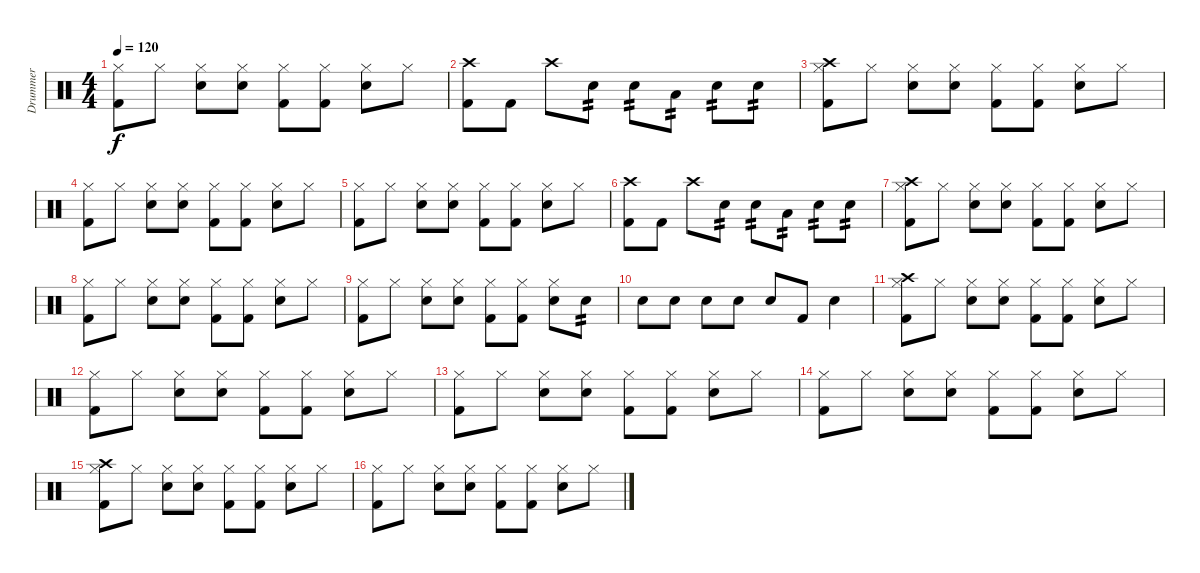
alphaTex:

\track ("Drummer" "Drummer") {instrument percussion}
\staff {score}
\articulation defaults
\ts (4 4)
\tempo 120
\clef neutral
\ks c
("Kick (hit) 2" "Hi-Hat (closed)").8{dy f} "Hi-Hat (closed)".8 ("Electric Snare (hit)" "Hi-Hat (closed)").8 ("Electric Snare (hit)" "Hi-Hat (closed)").8 ("Kick (hit) 2" "Hi-Hat (closed)").8 ("Kick (hit) 2" "Hi-Hat (closed)").8 ("Electric Snare (hit)" "Hi-Hat (closed)").8 "Hi-Hat (closed)".8 |
("Kick (hit) 2" "Crash high (hit)").8 "Kick (hit) 2".8 "Crash high (hit)".8 "Electric Snare (hit)".8{tp 2} "Electric Snare (hit)".8{tp 2} "Low Tom (hit)".8{tp 2} "Electric Snare (hit)".8{tp 2} "Electric Snare (hit)".8{tp 2} |
("Kick (hit) 2" "Crash high (hit)" "Hi-Hat (closed)").8 "Hi-Hat (closed)".8 ("Electric Snare (hit)" "Hi-Hat (closed)").8 ("Electric Snare (hit)" "Hi-Hat (closed)").8 ("Kick (hit) 2" "Hi-Hat (closed)").8 ("Kick (hit) 2" "Hi-Hat (closed)").8 ("Electric Snare (hit)" "Hi-Hat (closed)").8 "Hi-Hat (closed)".8 |
("Kick (hit) 2" "Hi-Hat (closed)").8 "Hi-Hat (closed)".8 ("Electric Snare (hit)" "Hi-Hat (closed)").8 ("Electric Snare (hit)" "Hi-Hat (closed)").8 ("Kick (hit) 2" "Hi-Hat (closed)").8 ("Kick (hit) 2" "Hi-Hat (closed)").8 ("Electric Snare (hit)" "Hi-Hat (closed)").8 "Hi-Hat (closed)".8 |
("Kick (hit) 2" "Hi-Hat (closed)").8 "Hi-Hat (closed)".8 ("Electric Snare (hit)" "Hi-Hat (closed)").8 ("Electric Snare (hit)" "Hi-Hat (closed)").8 ("Kick (hit) 2" "Hi-Hat (closed)").8 ("Kick (hit) 2" "Hi-Hat (closed)").8 ("Electric Snare (hit)" "Hi-Hat (closed)").8 "Hi-Hat (closed)".8 |
("Kick (hit) 2" "Crash high (hit)").8 "Kick (hit) 2".8 "Crash high (hit)".8 "Electric Snare (hit)".8{tp 2} "Electric Snare (hit)".8{tp 2} "Low Tom (hit)".8{tp 2} "Electric Snare (hit)".8{tp 2} "Electric Snare (hit)".8{tp 2} |
("Kick (hit) 2" "Crash high (hit)" "Hi-Hat (closed)").8 "Hi-Hat (closed)".8 ("Electric Snare (hit)" "Hi-Hat (closed)").8 ("Electric Snare (hit)" "Hi-Hat (closed)").8 ("Kick (hit) 2" "Hi-Hat (closed)").8 ("Kick (hit) 2" "Hi-Hat (closed)").8 ("Electric Snare (hit)" "Hi-Hat (closed)").8 "Hi-Hat (closed)".8 |
("Kick (hit) 2" "Hi-Hat (closed)").8 "Hi-Hat (closed)".8 ("Electric Snare (hit)" "Hi-Hat (closed)").8 ("Electric Snare (hit)" "Hi-Hat (closed)").8 ("Kick (hit) 2" "Hi-Hat (closed)").8 ("Kick (hit) 2" "Hi-Hat (closed)").8 ("Electric Snare (hit)" "Hi-Hat (closed)").8 "Hi-Hat (closed)".8 |
("Kick (hit) 2" "Hi-Hat (closed)").8 "Hi-Hat (closed)".8 ("Electric Snare (hit)" "Hi-Hat (closed)").8 ("Electric Snare (hit)" "Hi-Hat (closed)").8 ("Kick (hit) 2" "Hi-Hat (closed)").8 ("Kick (hit) 2" "Hi-Hat (closed)").8 ("Electric Snare (hit)" "Hi-Hat (closed)").8 "Electric Snare (hit)".8{tp 2} |
"Electric Snare (hit)".8 "Electric Snare (hit)".8 "Electric Snare (hit)".8 "Electric Snare (hit)".8 "Electric Snare (hit)".8 "Kick (hit) 2".8 "Electric Snare (hit)".4 |
("Kick (hit) 2" "Crash high (hit)" "Hi-Hat (closed)").8 "Hi-Hat (closed)".8 ("Electric Snare (hit)" "Hi-Hat (closed)").8 ("Electric Snare (hit)" "Hi-Hat (closed)").8 ("Kick (hit) 2" "Hi-Hat (closed)").8 ("Kick (hit) 2" "Hi-Hat (closed)").8 ("Electric Snare (hit)" "Hi-Hat (closed)").8 "Hi-Hat (closed)".8 |
("Kick (hit) 2" "Hi-Hat (closed)").8 "Hi-Hat (closed)".8 ("Electric Snare (hit)" "Hi-Hat (closed)").8 ("Electric Snare (hit)" "Hi-Hat (closed)").8 ("Kick (hit) 2" "Hi-Hat (closed)").8 ("Kick (hit) 2" "Hi-Hat (closed)").8 ("Electric Snare (hit)" "Hi-Hat (closed)").8 "Hi-Hat (closed)".8 |
("Kick (hit) 2" "Hi-Hat (closed)").8 "Hi-Hat (closed)".8 ("Electric Snare (hit)" "Hi-Hat (closed)").8 ("Electric Snare (hit)" "Hi-Hat (closed)").8 ("Kick (hit) 2" "Hi-Hat (closed)").8 ("Kick (hit) 2" "Hi-Hat (closed)").8 ("Electric Snare (hit)" "Hi-Hat (closed)").8 "Hi-Hat (closed)".8 |
("Kick (hit) 2" "Hi-Hat (closed)").8 "Hi-Hat (closed)".8 ("Electric Snare (hit)" "Hi-Hat (closed)").8 ("Electric Snare (hit)" "Hi-Hat (closed)").8 ("Kick (hit) 2" "Hi-Hat (closed)").8 ("Kick (hit) 2" "Hi-Hat (closed)").8 ("Electric Snare (hit)" "Hi-Hat (closed)").8 "Hi-Hat (closed)".8 |
("Kick (hit) 2" "Crash high (hit)" "Hi-Hat (closed)").8 "Hi-Hat (closed)".8 ("Electric Snare (hit)" "Hi-Hat (closed)").8 ("Electric Snare (hit)" "Hi-Hat (closed)").8 ("Kick (hit) 2" "Hi-Hat (closed)").8 ("Kick (hit) 2" "Hi-Hat (closed)").8 ("Electric Snare (hit)" "Hi-Hat (closed)").8 "Hi-Hat (closed)".8 |
("Kick (hit) 2" "Hi-Hat (closed)").8 "Hi-Hat (closed)".8 ("Electric Snare (hit)" "Hi-Hat (closed)").8 ("Electric Snare (hit)" "Hi-Hat (closed)").8 ("Kick (hit) 2" "Hi-Hat (closed)").8 ("Kick (hit) 2" "Hi-Hat (closed)").8 ("Electric Snare (hit)" "Hi-Hat (closed)").8 "Hi-Hat (closed)".8
